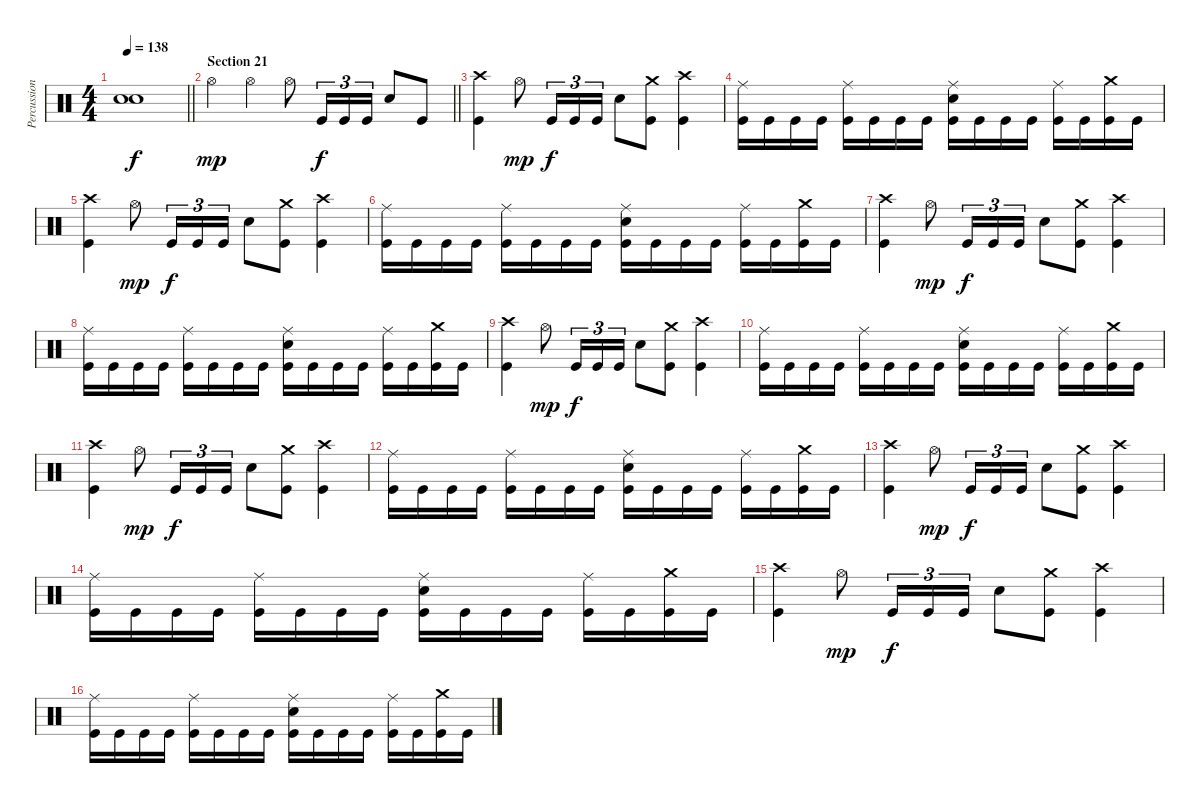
\track ("Percussion" "Percussion") {instrument percussion}
\staff {score}
\articulation defaults
\ts (4 4)
\tempo 138
\clef neutral
\barLineRight lightlight
\ks c
("Snare (hit)"{t} "Snare (hit)"{t}).1{dy f} |
\section ("" "Section 21")
\barLineRight lightlight "Hi-Hat (open)".4{dy mp} "Hi-Hat (open)".4 "Hi-Hat (open)".8 "Kick (hit)".16{tu (3 2) dy f} "Kick (hit)".16{tu (3 2)} "Kick (hit)".16{tu (3 2)} "Electric Snare (hit)".8 "Kick (hit)".8
|
("Crash high (hit)" "Kick (hit)").4 "Hi-Hat (open)".8{dy mp} "Kick (hit)".16{tu (3 2) dy f} "Kick (hit)".16{tu (3 2)} "Kick (hit)".16{tu (3 2)} "Electric Snare (hit)".8 ("Crash medium (hit)" "Kick (hit)").8 ("Crash high (hit)" "Kick (hit)").4 |
("Ride (middle)" "Kick (hit)").16 "Kick (hit)".16 "Kick (hit)".16 "Kick (hit)".16 ("Ride (middle)" "Kick (hit)").16 "Kick (hit)".16 "Kick (hit)".16 "Kick (hit)".16 ("Ride (middle)" "Electric Snare (hit)" "Kick (hit)").16 "Kick (hit)".16 "Kick (hit)".16 "Kick (hit)".16 ("Ride (middle)" "Kick (hit)").16 "Kick (hit)".16 ("Crash medium (hit)" "Kick (hit)").16 "Kick (hit)".16 |
("Crash high (hit)" "Kick (hit)").4 "Hi-Hat (open)".8{dy mp} "Kick (hit)".16{tu (3 2) dy f} "Kick (hit)".16{tu (3 2)} "Kick (hit)".16{tu (3 2)} "Electric Snare (hit)".8 ("Crash medium (hit)" "Kick (hit)").8 ("Crash high (hit)" "Kick (hit)").4 |
("Ride (middle)" "Kick (hit)").16 "Kick (hit)".16 "Kick (hit)".16 "Kick (hit)".16 ("Ride (middle)" "Kick (hit)").16 "Kick (hit)".16 "Kick (hit)".16 "Kick (hit)".16 ("Ride (middle)" "Electric Snare (hit)" "Kick (hit)").16 "Kick (hit)".16 "Kick (hit)".16 "Kick (hit)".16 ("Ride (middle)" "Kick (hit)").16 "Kick (hit)".16 ("Crash medium (hit)" "Kick (hit)").16 "Kick (hit)".16 |
("Crash high (hit)" "Kick (hit)").4 "Hi-Hat (open)".8{dy mp} "Kick (hit)".16{tu (3 2) dy f} "Kick (hit)".16{tu (3 2)} "Kick (hit)".16{tu (3 2)} "Electric Snare (hit)".8 ("Crash medium (hit)" "Kick (hit)").8 ("Crash high (hit)" "Kick (hit)").4 |
("Ride (middle)" "Kick (hit)").16 "Kick (hit)".16 "Kick (hit)".16 "Kick (hit)".16 ("Ride (middle)" "Kick (hit)").16 "Kick (hit)".16 "Kick (hit)".16 "Kick (hit)".16 ("Ride (middle)" "Electric Snare (hit)" "Kick (hit)").16 "Kick (hit)".16 "Kick (hit)".16 "Kick (hit)".16 ("Ride (middle)" "Kick (hit)").16 "Kick (hit)".16 ("Crash medium (hit)" "Kick (hit)").16 "Kick (hit)".16 |
("Crash high (hit)" "Kick (hit)").4 "Hi-Hat (open)".8{dy mp} "Kick (hit)".16{tu (3 2) dy f} "Kick (hit)".16{tu (3 2)} "Kick (hit)".16{tu (3 2)} "Electric Snare (hit)".8 ("Crash medium (hit)" "Kick (hit)").8 ("Crash high (hit)" "Kick (hit)").4 |
("Ride (middle)" "Kick (hit)").16 "Kick (hit)".16 "Kick (hit)".16 "Kick (hit)".16 ("Ride (middle)" "Kick (hit)").16 "Kick (hit)".16 "Kick (hit)".16 "Kick (hit)".16 ("Ride (middle)" "Electric Snare (hit)" "Kick (hit)").16 "Kick (hit)".16 "Kick (hit)".16 "Kick (hit)".16 ("Ride (middle)" "Kick (hit)").16 "Kick (hit)".16 ("Crash medium (hit)" "Kick (hit)").16 "Kick (hit)".16 |
("Crash high (hit)" "Kick (hit)").4 "Hi-Hat (open)".8{dy mp} "Kick (hit)".16{tu (3 2) dy f} "Kick (hit)".16{tu (3 2)} "Kick (hit)".16{tu (3 2)} "Electric Snare (hit)".8 ("Crash medium (hit)" "Kick (hit)").8 ("Crash high (hit)" "Kick (hit)").4 |
("Ride (middle)" "Kick (hit)").16 "Kick (hit)".16 "Kick (hit)".16 "Kick (hit)".16 ("Ride (middle)" "Kick (hit)").16 "Kick (hit)".16 "Kick (hit)".16 "Kick (hit)".16 ("Ride (middle)" "Electric Snare (hit)" "Kick (hit)").16 "Kick (hit)".16 "Kick (hit)".16 "Kick (hit)".16 ("Ride (middle)" "Kick (hit)").16 "Kick (hit)".16 ("Crash medium (hit)" "Kick (hit)").16 "Kick (hit)".16 |
("Crash high (hit)" "Kick (hit)").4 "Hi-Hat (open)".8{dy mp} "Kick (hit)".16{tu (3 2) dy f} "Kick (hit)".16{tu (3 2)} "Kick (hit)".16{tu (3 2)} "Electric Snare (hit)".8 ("Crash medium (hit)" "Kick (hit)").8 ("Crash high (hit)" "Kick (hit)").4 |
("Ride (middle)" "Kick (hit)").16 "Kick (hit)".16 "Kick (hit)".16 "Kick (hit)".16 ("Ride (middle)" "Kick (hit)").16 "Kick (hit)".16 "Kick (hit)".16 "Kick (hit)".16 ("Ride (middle)" "Electric Snare (hit)" "Kick (hit)").16 "Kick (hit)".16 "Kick (hit)".16 "Kick (hit)".16 ("Ride (middle)" "Kick (hit)").16 "Kick (hit)".16 ("Crash medium (hit)" "Kick (hit)").16 "Kick (hit)".16 |
("Crash high (hit)" "Kick (hit)").4 "Hi-Hat (open)".8{dy mp} "Kick (hit)".16{tu (3 2) dy f} "Kick (hit)".16{tu (3 2)} "Kick (hit)".16{tu (3 2)} "Electric Snare (hit)".8 ("Crash medium (hit)" "Kick (hit)").8 ("Crash high (hit)" "Kick (hit)").4 |
("Ride (middle)" "Kick (hit)").16 "Kick (hit)".16 "Kick (hit)".16 "Kick (hit)".16 ("Ride (middle)" "Kick (hit)").16 "Kick (hit)".16 "Kick (hit)".16 "Kick (hit)".16 ("Ride (middle)" "Electric Snare (hit)" "Kick (hit)").16 "Kick (hit)".16 "Kick (hit)".16 "Kick (hit)".16 ("Ride (middle)" "Kick (hit)").16 "Kick (hit)".16 ("Crash medium (hit)" "Kick (hit)").16 "Kick (hit)".16
